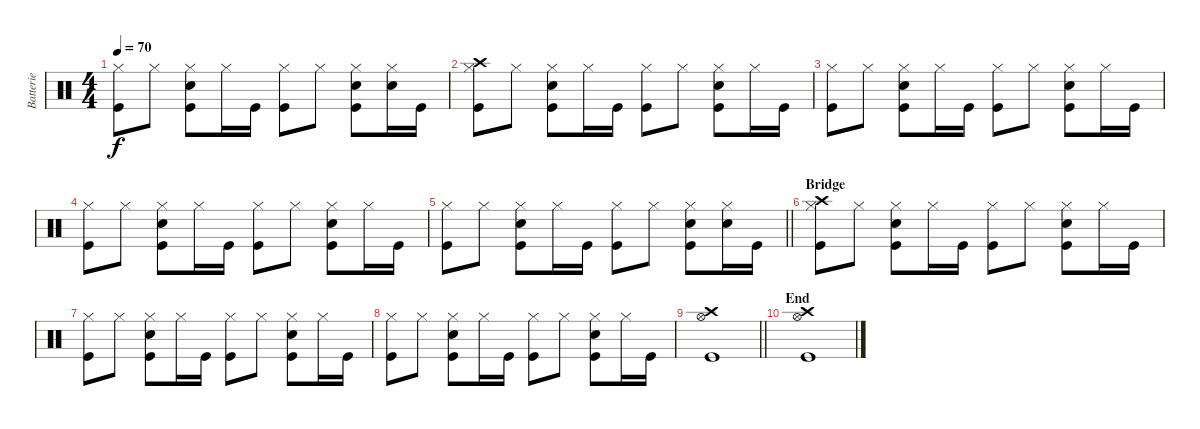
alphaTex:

\track ("Batterie" "Batterie") {instrument percussion}
\staff {score}
\articulation defaults
\ts (4 4)
\tempo 70
\clef neutral
\ks c
("Kick (hit)" "Hi-Hat (closed)").8{dy f} "Hi-Hat (closed)".8 ("Snare (hit) 2" "Kick (hit)" "Hi-Hat (closed)").8 "Hi-Hat (closed)".16 "Kick (hit)".16 ("Kick (hit)" "Hi-Hat (closed)").8 "Hi-Hat (closed)".8 ("Snare (hit) 2" "Kick (hit)" "Hi-Hat (closed)").8 ("Snare (hit) 2" "Hi-Hat (closed)").16 "Kick (hit)".16 |
("Crash high (hit)" "Kick (hit)" "Hi-Hat (closed)").8 "Hi-Hat (closed)".8 ("Snare (hit) 2" "Kick (hit)" "Hi-Hat (closed)").8 "Hi-Hat (closed)".16 "Kick (hit)".16 ("Kick (hit)" "Hi-Hat (closed)").8 "Hi-Hat (closed)".8 ("Snare (hit) 2" "Kick (hit)" "Hi-Hat (closed)").8 "Hi-Hat (closed)".16 "Kick (hit)".16 |
("Kick (hit)" "Hi-Hat (closed)").8 "Hi-Hat (closed)".8 ("Snare (hit) 2" "Kick (hit)" "Hi-Hat (closed)").8 "Hi-Hat (closed)".16 "Kick (hit)".16 ("Kick (hit)" "Hi-Hat (closed)").8 "Hi-Hat (closed)".8 ("Snare (hit) 2" "Kick (hit)" "Hi-Hat (closed)").8 "Hi-Hat (closed)".16 "Kick (hit)".16 |
("Kick (hit)" "Hi-Hat (closed)").8 "Hi-Hat (closed)".8 ("Snare (hit) 2" "Kick (hit)" "Hi-Hat (closed)").8 "Hi-Hat (closed)".16 "Kick (hit)".16 ("Kick (hit)" "Hi-Hat (closed)").8 "Hi-Hat (closed)".8 ("Snare (hit) 2" "Kick (hit)" "Hi-Hat (closed)").8 "Hi-Hat (closed)".16 "Kick (hit)".16 |
\barLineRight lightlight
("Kick (hit)" "Hi-Hat (closed)").8 "Hi-Hat (closed)".8 ("Snare (hit) 2" "Kick (hit)" "Hi-Hat (closed)").8 "Hi-Hat (closed)".16 "Kick (hit)".16 ("Kick (hit)" "Hi-Hat (closed)").8 "Hi-Hat (closed)".8 ("Snare (hit) 2" "Kick (hit)" "Hi-Hat (closed)").8 ("Snare (hit) 2" "Hi-Hat (closed)").16 "Kick (hit)".16 |
\section ("" "Bridge")
("Crash high (hit)" "Kick (hit)" "Hi-Hat (closed)").8 "Hi-Hat (closed)".8 ("Snare (hit) 2" "Kick (hit)" "Hi-Hat (closed)").8 "Hi-Hat (closed)".16 "Kick (hit)".16 ("Kick (hit)" "Hi-Hat (closed)").8 "Hi-Hat (closed)".8 ("Snare (hit) 2" "Kick (hit)" "Hi-Hat (closed)").8 "Hi-Hat (closed)".16 "Kick (hit)".16 |
("Kick (hit)" "Hi-Hat (closed)").8 "Hi-Hat (closed)".8 ("Snare (hit) 2" "Kick (hit)" "Hi-Hat (closed)").8 "Hi-Hat (closed)".16 "Kick (hit)".16 ("Kick (hit)" "Hi-Hat (closed)").8 "Hi-Hat (closed)".8 ("Snare (hit) 2" "Kick (hit)" "Hi-Hat (closed)").8 "Hi-Hat (closed)".16 "Kick (hit)".16 |
("Kick (hit)" "Hi-Hat (closed)").8 "Hi-Hat (closed)".8 ("Snare (hit) 2" "Kick (hit)" "Hi-Hat (closed)").8 "Hi-Hat (closed)".16 "Kick (hit)".16 ("Kick (hit)" "Hi-Hat (closed)").8 "Hi-Hat (closed)".8 ("Snare (hit) 2" "Kick (hit)" "Hi-Hat (closed)").8 "Hi-Hat (closed)".16 "Kick (hit)".16 |
\barLineRight lightlight
("Crash high (hit)" "Kick (hit)" "Hi-Hat (open)").1 |
\section ("" "End")
("Crash high (hit)" "Kick (hit)" "Hi-Hat (open)").1
